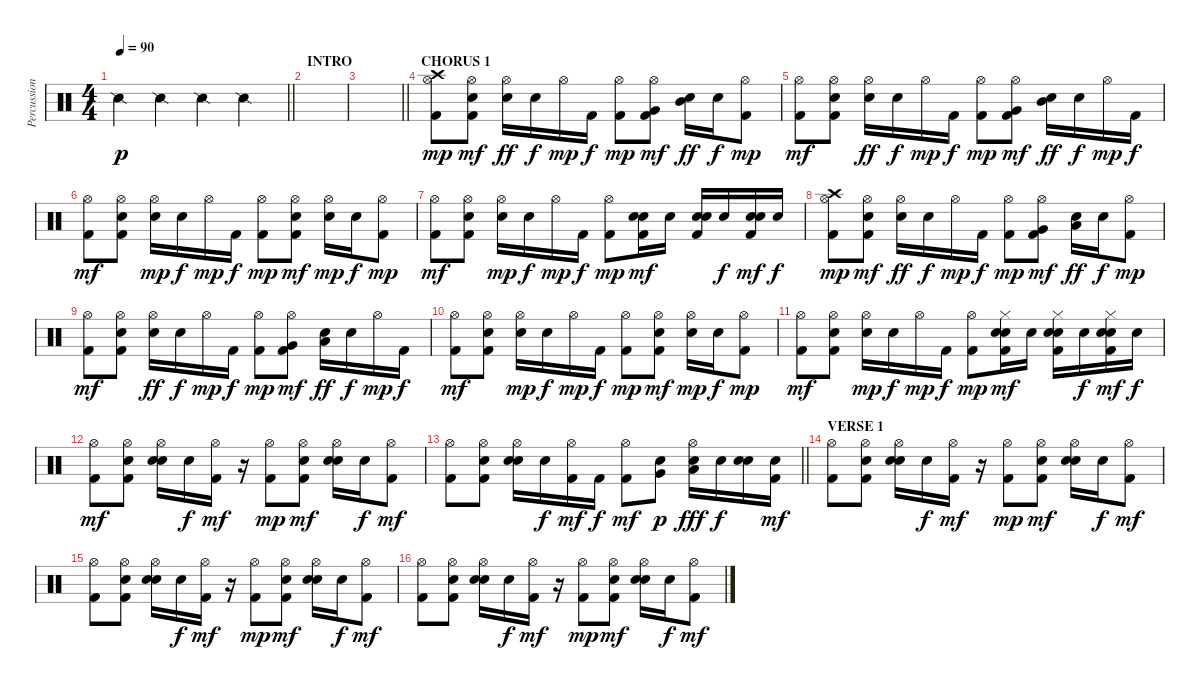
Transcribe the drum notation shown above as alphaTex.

\track ("Percussion" "Percussion") {instrument percussion}
\staff {score}
\articulation defaults
\ts (4 4)
\tempo 90
\clef neutral
\barLineRight lightlight
\ks c "Snare (side stick) 2".4{dy p} "Snare (side stick) 2".4 "Snare (side stick) 2".4 "Snare (side stick) 2".4
|
\section ("" "INTRO")
|
\barLineRight lightlight
|
\section ("" "CHORUS 1")
("Hi-Hat (open)" "Crash high (hit)" "Kick (hit) 2").8{dy mp} ("Hi-Hat (open)" "Snare (hit) 2" "Kick (hit) 2").8{dy mf} ("Hi-Hat (open)" "Snare (hit) 2").16{dy ff} "Snare (hit) 2".16{dy f} "Hi-Hat (open)".16{dy mp} "Kick (hit) 2".16{dy f} ("Hi-Hat (open)" "Kick (hit) 2").8{dy mp} ("Hi-Hat (open)" "Very Low Tom (hit)" "Kick (hit) 2").8{dy mf} ("Mid Tom (hit)" "Snare (hit) 2").16{dy ff} "Snare (hit) 2".16{dy f} ("Hi-Hat (open)" "Kick (hit) 2").8{dy mp} |
("Hi-Hat (open)" "Kick (hit) 2").8{dy mf} ("Hi-Hat (open)" "Snare (hit) 2" "Kick (hit) 2").8 ("Hi-Hat (open)" "Snare (hit) 2").16{dy ff} "Snare (hit) 2".16{dy f} "Hi-Hat (open)".16{dy mp} "Kick (hit) 2".16{dy f} ("Hi-Hat (open)" "Kick (hit) 2").8{dy mp} ("Hi-Hat (open)" "Very Low Tom (hit)" "Kick (hit) 2").8{dy mf} ("Mid Tom (hit)" "Snare (hit) 2").16{dy ff} "Snare (hit) 2".16{dy f} "Hi-Hat (open)".16{dy mp} "Kick (hit) 2".16{dy f} |
("Hi-Hat (open)" "Kick (hit) 2").8{dy mf} ("Hi-Hat (open)" "Snare (hit) 2" "Kick (hit) 2").8 ("Hi-Hat (open)" "Snare (hit) 2").16{dy mp} "Snare (hit) 2".16{dy f} "Hi-Hat (open)".16{dy mp} "Kick (hit) 2".16{dy f} ("Hi-Hat (open)" "Kick (hit) 2").8{dy mp} ("Hi-Hat (open)" "Snare (hit) 2" "Kick (hit) 2").8{dy mf} ("Hi-Hat (open)" "Snare (hit) 2").16{dy mp} "Snare (hit) 2".16{dy f} ("Hi-Hat (open)" "Kick (hit) 2").8{dy mp} |
("Hi-Hat (open)" "Kick (hit) 2").8{dy mf} ("Hi-Hat (open)" "Snare (hit) 2" "Kick (hit) 2").8 ("Hi-Hat (open)" "Snare (hit) 2").16{dy mp} "Snare (hit) 2".16{dy f} "Hi-Hat (open)".16{dy mp} "Kick (hit) 2".16{dy f} ("Hi-Hat (open)" "Kick (hit) 2").8{dy mp} ("Electric Snare (hit)" "Snare (hit) 2" "Kick (hit) 2").16{dy mf} "Electric Snare (hit)".16 ("Electric Snare (hit)" "Snare (hit) 2" "Kick (hit) 2").16 "Electric Snare (hit)".16{dy f} ("Electric Snare (hit)" "Snare (hit) 2" "Kick (hit) 2").16{dy mf} "Electric Snare (hit)".16{dy f} |
("Hi-Hat (open)" "Crash high (hit)" "Kick (hit) 2").8{dy mp} ("Hi-Hat (open)" "Snare (hit) 2" "Kick (hit) 2").8{dy mf} ("Hi-Hat (open)" "Snare (hit) 2").16{dy ff} "Snare (hit) 2".16{dy f} "Hi-Hat (open)".16{dy mp} "Kick (hit) 2".16{dy f} ("Hi-Hat (open)" "Kick (hit) 2").8{dy mp} ("Hi-Hat (open)" "Very Low Tom (hit)" "Kick (hit) 2").8{dy mf} ("Low Floor Tom (hit)" "Snare (hit) 2").16{dy ff} "Snare (hit) 2".16{dy f} ("Hi-Hat (open)" "Kick (hit) 2").8{dy mp} |
("Hi-Hat (open)" "Kick (hit) 2").8{dy mf} ("Hi-Hat (open)" "Snare (hit) 2" "Kick (hit) 2").8 ("Hi-Hat (open)" "Snare (hit) 2").16{dy ff} "Snare (hit) 2".16{dy f} "Hi-Hat (open)".16{dy mp} "Kick (hit) 2".16{dy f} ("Hi-Hat (open)" "Kick (hit) 2").8{dy mp} ("Hi-Hat (open)" "Very Low Tom (hit)" "Kick (hit) 2").8{dy mf} ("Low Floor Tom (hit)" "Snare (hit) 2").16{dy ff} "Snare (hit) 2".16{dy f} "Hi-Hat (open)".16{dy mp} "Kick (hit) 2".16{dy f} |
("Hi-Hat (open)" "Kick (hit) 2").8{dy mf} ("Hi-Hat (open)" "Snare (hit) 2" "Kick (hit) 2").8 ("Hi-Hat (open)" "Snare (hit) 2").16{dy mp} "Snare (hit) 2".16{dy f} "Hi-Hat (open)".16{dy mp} "Kick (hit) 2".16{dy f} ("Hi-Hat (open)" "Kick (hit) 2").8{dy mp} ("Hi-Hat (open)" "Snare (hit) 2" "Kick (hit) 2").8{dy mf} ("Hi-Hat (open)" "Snare (hit) 2").16{dy mp} "Snare (hit) 2".16{dy f} ("Hi-Hat (open)" "Kick (hit) 2").8{dy mp} |
("Hi-Hat (open)" "Kick (hit) 2").8{dy mf} ("Hi-Hat (open)" "Snare (hit) 2" "Kick (hit) 2").8 ("Hi-Hat (open)" "Snare (hit) 2").16{dy mp} "Snare (hit) 2".16{dy f} "Hi-Hat (open)".16{dy mp} "Kick (hit) 2".16{dy f} ("Hi-Hat (open)" "Kick (hit) 2").8{dy mp} ("Hi-Hat (closed)" "Electric Snare (hit)" "Snare (hit) 2" "Kick (hit) 2").16{dy mf} "Electric Snare (hit)".16 ("Hi-Hat (closed)" "Electric Snare (hit)" "Snare (hit) 2" "Kick (hit) 2").16 "Electric Snare (hit)".16{dy f} ("Hi-Hat (closed)" "Electric Snare (hit)" "Snare (hit) 2" "Kick (hit) 2").16{dy mf} "Electric Snare (hit)".16{dy f} |
("Hi-Hat (open)" "Kick (hit) 2").8{dy mf} ("Hi-Hat (open)" "Snare (hit) 2" "Kick (hit) 2").8 ("Hi-Hat (open)" "Electric Snare (hit)" "Snare (hit) 2").16 "Snare (hit) 2".16{dy f} ("Hi-Hat (open)" "Kick (hit) 2").16{dy mf} r.16 ("Hi-Hat (open)" "Kick (hit) 2").8{dy mp} ("Hi-Hat (open)" "Snare (hit) 2" "Kick (hit) 2").8{dy mf} ("Hi-Hat (open)" "Electric Snare (hit)" "Snare (hit) 2").16 "Snare (hit) 2".16{dy f} ("Hi-Hat (open)" "Kick (hit) 2").8{dy mf} |
\barLineRight lightlight
("Hi-Hat (open)" "Kick (hit) 2").8 ("Hi-Hat (open)" "Snare (hit) 2" "Kick (hit) 2").8 ("Hi-Hat (open)" "Electric Snare (hit)" "Snare (hit) 2").16 "Snare (hit) 2".16{dy f} ("Hi-Hat (open)" "Kick (hit) 2").16{dy mf} "Kick (hit) 2".16{dy f} ("Hi-Hat (open)" "Kick (hit) 2").8{dy mf} ("Very Low Tom (hit)" "Snare (hit) 2").8{dy p} ("Hi-Hat (open)" "Low Floor Tom (hit)" "Snare (hit) 2").16{dy fff} "Electric Snare (hit)".16{dy f} ("Electric Snare (hit)" "Snare (hit) 2").16 ("Electric Snare (hit)" "Kick (hit) 2").16{dy mf} |
\section ("" "VERSE 1")
("Hi-Hat (open)" "Kick (hit) 2").8 ("Hi-Hat (open)" "Snare (hit) 2" "Kick (hit) 2").8 ("Hi-Hat (open)" "Electric Snare (hit)" "Snare (hit) 2").16 "Snare (hit) 2".16{dy f} ("Hi-Hat (open)" "Kick (hit) 2").16{dy mf} r.16 ("Hi-Hat (open)" "Kick (hit) 2").8{dy mp} ("Hi-Hat (open)" "Snare (hit) 2" "Kick (hit) 2").8{dy mf} ("Hi-Hat (open)" "Electric Snare (hit)" "Snare (hit) 2").16 "Snare (hit) 2".16{dy f} ("Hi-Hat (open)" "Kick (hit) 2").8{dy mf} |
("Hi-Hat (open)" "Kick (hit) 2").8 ("Hi-Hat (open)" "Snare (hit) 2" "Kick (hit) 2").8 ("Hi-Hat (open)" "Electric Snare (hit)" "Snare (hit) 2").16 "Snare (hit) 2".16{dy f} ("Hi-Hat (open)" "Kick (hit) 2").16{dy mf} r.16 ("Hi-Hat (open)" "Kick (hit) 2").8{dy mp} ("Hi-Hat (open)" "Snare (hit) 2" "Kick (hit) 2").8{dy mf} ("Hi-Hat (open)" "Electric Snare (hit)" "Snare (hit) 2").16 "Snare (hit) 2".16{dy f} ("Hi-Hat (open)" "Kick (hit) 2").8{dy mf} |
("Hi-Hat (open)" "Kick (hit) 2").8 ("Hi-Hat (open)" "Snare (hit) 2" "Kick (hit) 2").8 ("Hi-Hat (open)" "Electric Snare (hit)" "Snare (hit) 2").16 "Snare (hit) 2".16{dy f} ("Hi-Hat (open)" "Kick (hit) 2").16{dy mf} r.16 ("Hi-Hat (open)" "Kick (hit) 2").8{dy mp} ("Hi-Hat (open)" "Snare (hit) 2" "Kick (hit) 2").8{dy mf} ("Hi-Hat (open)" "Electric Snare (hit)" "Snare (hit) 2").16 "Snare (hit) 2".16{dy f} ("Hi-Hat (open)" "Kick (hit) 2").8{dy mf}
